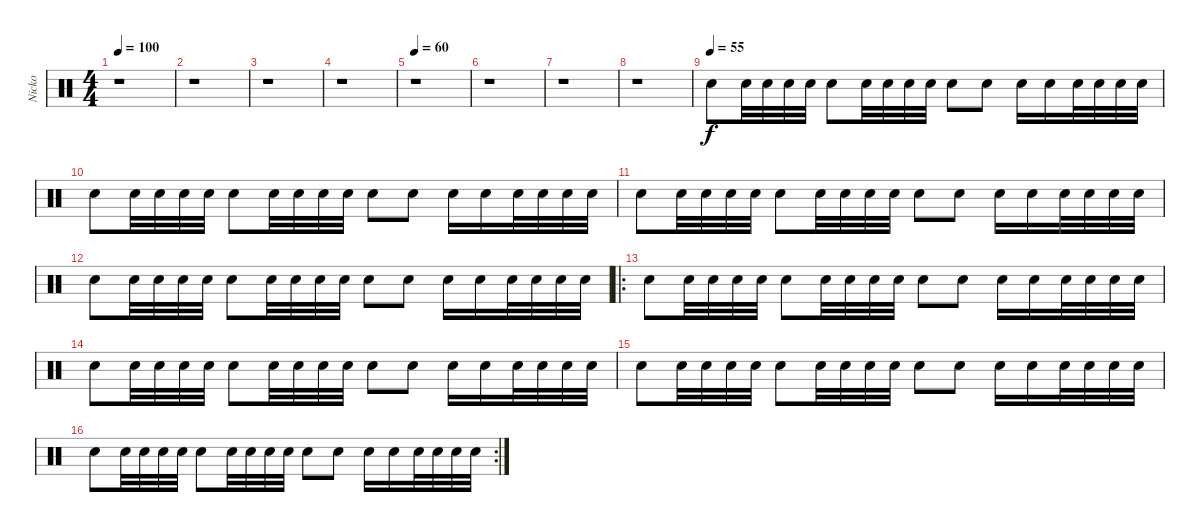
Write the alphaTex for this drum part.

\track ("Nicko" "Nicko") {instrument percussion}
\staff {score}
\articulation defaults
\ts (4 4)
\tempo 100
\tempo 60
\tempo 100
\clef neutral
\ks c
r.1{dy f} |
r.1 |
r.1 |
r.1 |
\tempo 60
r.1 |
r.1 |
r.1 |
r.1 |
\tempo (55)
"Snare (hit) 2".8 "Snare (hit) 2".32 "Snare (hit) 2".32 "Snare (hit) 2".32 "Snare (hit) 2".32 "Snare (hit) 2".8 "Snare (hit) 2".32 "Snare (hit) 2".32 "Snare (hit) 2".32 "Snare (hit) 2".32 "Snare (hit) 2".8 "Snare (hit) 2".8 "Snare (hit) 2".16 "Snare (hit) 2".16 "Snare (hit) 2".32 "Snare (hit) 2".32 "Snare (hit) 2".32 "Snare (hit) 2".32 |
"Snare (hit) 2".8 "Snare (hit) 2".32 "Snare (hit) 2".32 "Snare (hit) 2".32 "Snare (hit) 2".32 "Snare (hit) 2".8 "Snare (hit) 2".32 "Snare (hit) 2".32 "Snare (hit) 2".32 "Snare (hit) 2".32 "Snare (hit) 2".8 "Snare (hit) 2".8 "Snare (hit) 2".16 "Snare (hit) 2".16 "Snare (hit) 2".32 "Snare (hit) 2".32 "Snare (hit) 2".32 "Snare (hit) 2".32 |
"Snare (hit) 2".8 "Snare (hit) 2".32 "Snare (hit) 2".32 "Snare (hit) 2".32 "Snare (hit) 2".32 "Snare (hit) 2".8 "Snare (hit) 2".32 "Snare (hit) 2".32 "Snare (hit) 2".32 "Snare (hit) 2".32 "Snare (hit) 2".8 "Snare (hit) 2".8 "Snare (hit) 2".16 "Snare (hit) 2".16 "Snare (hit) 2".32 "Snare (hit) 2".32 "Snare (hit) 2".32 "Snare (hit) 2".32 |
"Snare (hit) 2".8 "Snare (hit) 2".32 "Snare (hit) 2".32 "Snare (hit) 2".32 "Snare (hit) 2".32 "Snare (hit) 2".8 "Snare (hit) 2".32 "Snare (hit) 2".32 "Snare (hit) 2".32 "Snare (hit) 2".32 "Snare (hit) 2".8 "Snare (hit) 2".8 "Snare (hit) 2".16 "Snare (hit) 2".16 "Snare (hit) 2".32 "Snare (hit) 2".32 "Snare (hit) 2".32 "Snare (hit) 2".32 |
\ro "Snare (hit) 2".8 "Snare (hit) 2".32 "Snare (hit) 2".32 "Snare (hit) 2".32 "Snare (hit) 2".32 "Snare (hit) 2".8 "Snare (hit) 2".32 "Snare (hit) 2".32 "Snare (hit) 2".32 "Snare (hit) 2".32 "Snare (hit) 2".8 "Snare (hit) 2".8 "Snare (hit) 2".16 "Snare (hit) 2".16 "Snare (hit) 2".32 "Snare (hit) 2".32 "Snare (hit) 2".32 "Snare (hit) 2".32
|
"Snare (hit) 2".8 "Snare (hit) 2".32 "Snare (hit) 2".32 "Snare (hit) 2".32 "Snare (hit) 2".32 "Snare (hit) 2".8 "Snare (hit) 2".32 "Snare (hit) 2".32 "Snare (hit) 2".32 "Snare (hit) 2".32 "Snare (hit) 2".8 "Snare (hit) 2".8 "Snare (hit) 2".16 "Snare (hit) 2".16 "Snare (hit) 2".32 "Snare (hit) 2".32 "Snare (hit) 2".32 "Snare (hit) 2".32 |
"Snare (hit) 2".8 "Snare (hit) 2".32 "Snare (hit) 2".32 "Snare (hit) 2".32 "Snare (hit) 2".32 "Snare (hit) 2".8 "Snare (hit) 2".32 "Snare (hit) 2".32 "Snare (hit) 2".32 "Snare (hit) 2".32 "Snare (hit) 2".8 "Snare (hit) 2".8 "Snare (hit) 2".16 "Snare (hit) 2".16 "Snare (hit) 2".32 "Snare (hit) 2".32 "Snare (hit) 2".32 "Snare (hit) 2".32 |
\rc 2 "Snare (hit) 2".8 "Snare (hit) 2".32 "Snare (hit) 2".32 "Snare (hit) 2".32 "Snare (hit) 2".32 "Snare (hit) 2".8 "Snare (hit) 2".32 "Snare (hit) 2".32 "Snare (hit) 2".32 "Snare (hit) 2".32 "Snare (hit) 2".8 "Snare (hit) 2".8 "Snare (hit) 2".16 "Snare (hit) 2".16 "Snare (hit) 2".32 "Snare (hit) 2".32 "Snare (hit) 2".32 "Snare (hit) 2".32
